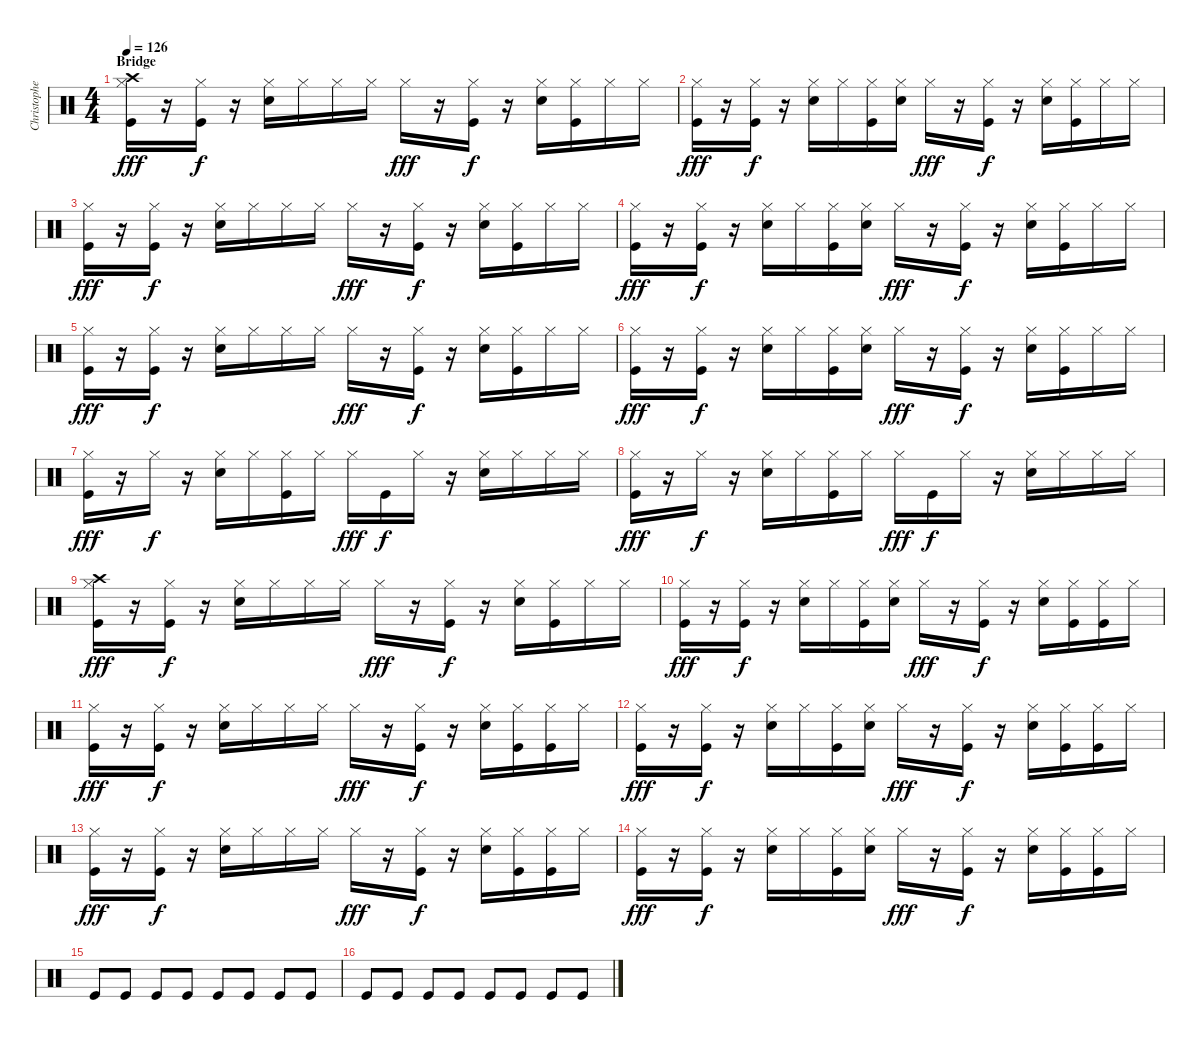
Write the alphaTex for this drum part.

\track ("Christopher - Drums" "Christophe") {mute instrument percussion}
\staff {score}
\articulation defaults
\ts (4 4)
\section ("" "Bridge")
\tempo 126
\clef neutral
\ks c
("Crash high (hit)" "Hi-Hat (closed)" "Kick (hit)").16{dy fff} r.16 ("Hi-Hat (closed)" "Kick (hit)").16{dy f} r.16 ("Hi-Hat (closed)" "Snare (hit) 2").16 "Hi-Hat (closed)".16 "Hi-Hat (closed)".16 "Hi-Hat (closed)".16 "Hi-Hat (closed)".16{dy fff} r.16 ("Hi-Hat (closed)" "Kick (hit)").16{dy f} r.16 ("Hi-Hat (closed)" "Snare (hit) 2").16 ("Hi-Hat (closed)" "Kick (hit)").16 "Hi-Hat (closed)".16 "Hi-Hat (closed)".16 |
("Hi-Hat (closed)" "Kick (hit)").16{dy fff} r.16 ("Hi-Hat (closed)" "Kick (hit)").16{dy f} r.16 ("Hi-Hat (closed)" "Snare (hit) 2").16 "Hi-Hat (closed)".16 ("Hi-Hat (closed)" "Kick (hit)").16 ("Hi-Hat (closed)" "Snare (hit) 2").16 "Hi-Hat (closed)".16{dy fff} r.16 ("Hi-Hat (closed)" "Kick (hit)").16{dy f} r.16 ("Hi-Hat (closed)" "Snare (hit) 2").16 ("Hi-Hat (closed)" "Kick (hit)").16 "Hi-Hat (closed)".16 "Hi-Hat (closed)".16 |
("Hi-Hat (closed)" "Kick (hit)").16{dy fff} r.16 ("Hi-Hat (closed)" "Kick (hit)").16{dy f} r.16 ("Hi-Hat (closed)" "Snare (hit) 2").16 "Hi-Hat (closed)".16 "Hi-Hat (closed)".16 "Hi-Hat (closed)".16 "Hi-Hat (closed)".16{dy fff} r.16 ("Hi-Hat (closed)" "Kick (hit)").16{dy f} r.16 ("Hi-Hat (closed)" "Snare (hit) 2").16 ("Hi-Hat (closed)" "Kick (hit)").16 "Hi-Hat (closed)".16 "Hi-Hat (closed)".16 |
("Hi-Hat (closed)" "Kick (hit)").16{dy fff} r.16 ("Hi-Hat (closed)" "Kick (hit)").16{dy f} r.16 ("Hi-Hat (closed)" "Snare (hit) 2").16 "Hi-Hat (closed)".16 ("Hi-Hat (closed)" "Kick (hit)").16 ("Hi-Hat (closed)" "Snare (hit) 2").16 "Hi-Hat (closed)".16{dy fff} r.16 ("Hi-Hat (closed)" "Kick (hit)").16{dy f} r.16 ("Hi-Hat (closed)" "Snare (hit) 2").16 ("Hi-Hat (closed)" "Kick (hit)").16 "Hi-Hat (closed)".16 "Hi-Hat (closed)".16 |
("Hi-Hat (closed)" "Kick (hit)").16{dy fff} r.16 ("Hi-Hat (closed)" "Kick (hit)").16{dy f} r.16 ("Hi-Hat (closed)" "Snare (hit) 2").16 "Hi-Hat (closed)".16 "Hi-Hat (closed)".16 "Hi-Hat (closed)".16 "Hi-Hat (closed)".16{dy fff} r.16 ("Hi-Hat (closed)" "Kick (hit)").16{dy f} r.16 ("Hi-Hat (closed)" "Snare (hit) 2").16 ("Hi-Hat (closed)" "Kick (hit)").16 "Hi-Hat (closed)".16 "Hi-Hat (closed)".16 |
("Hi-Hat (closed)" "Kick (hit)").16{dy fff} r.16 ("Hi-Hat (closed)" "Kick (hit)").16{dy f} r.16 ("Hi-Hat (closed)" "Snare (hit) 2").16 "Hi-Hat (closed)".16 ("Hi-Hat (closed)" "Kick (hit)").16 ("Hi-Hat (closed)" "Snare (hit) 2").16 "Hi-Hat (closed)".16{dy fff} r.16 ("Hi-Hat (closed)" "Kick (hit)").16{dy f} r.16 ("Hi-Hat (closed)" "Snare (hit) 2").16 ("Hi-Hat (closed)" "Kick (hit)").16 "Hi-Hat (closed)".16 "Hi-Hat (closed)".16 |
("Hi-Hat (closed)" "Kick (hit)").16{dy fff} r.16 "Hi-Hat (closed)".16{dy f} r.16 ("Hi-Hat (closed)" "Snare (hit) 2").16 "Hi-Hat (closed)".16 ("Hi-Hat (closed)" "Kick (hit)").16 "Hi-Hat (closed)".16 "Hi-Hat (closed)".16{dy fff} "Kick (hit)".16{dy f} "Hi-Hat (closed)".16 r.16 ("Hi-Hat (closed)" "Snare (hit) 2").16 "Hi-Hat (closed)".16 "Hi-Hat (closed)".16 "Hi-Hat (closed)".16 |
("Hi-Hat (closed)" "Kick (hit)").16{dy fff} r.16 "Hi-Hat (closed)".16{dy f} r.16 ("Hi-Hat (closed)" "Snare (hit) 2").16 "Hi-Hat (closed)".16 ("Hi-Hat (closed)" "Kick (hit)").16 "Hi-Hat (closed)".16 "Hi-Hat (closed)".16{dy fff} "Kick (hit)".16{dy f} "Hi-Hat (closed)".16 r.16 ("Hi-Hat (closed)" "Snare (hit) 2").16 "Hi-Hat (closed)".16 "Hi-Hat (closed)".16 "Hi-Hat (closed)".16 |
("Crash high (hit)" "Hi-Hat (closed)" "Kick (hit)").16{dy fff} r.16 ("Hi-Hat (closed)" "Kick (hit)").16{dy f} r.16 ("Hi-Hat (closed)" "Snare (hit) 2").16 "Hi-Hat (closed)".16 "Hi-Hat (closed)".16 "Hi-Hat (closed)".16 "Hi-Hat (closed)".16{dy fff} r.16 ("Hi-Hat (closed)" "Kick (hit)").16{dy f} r.16 ("Hi-Hat (closed)" "Snare (hit) 2").16 ("Hi-Hat (closed)" "Kick (hit)").16 "Hi-Hat (closed)".16 "Hi-Hat (closed)".16 |
("Hi-Hat (closed)" "Kick (hit)").16{dy fff} r.16 ("Hi-Hat (closed)" "Kick (hit)").16{dy f} r.16 ("Hi-Hat (closed)" "Snare (hit) 2").16 "Hi-Hat (closed)".16 ("Hi-Hat (closed)" "Kick (hit)").16 ("Hi-Hat (closed)" "Snare (hit) 2").16 "Hi-Hat (closed)".16{dy fff} r.16 ("Hi-Hat (closed)" "Kick (hit)").16{dy f} r.16 ("Hi-Hat (closed)" "Snare (hit) 2").16 ("Hi-Hat (closed)" "Kick (hit)").16 ("Hi-Hat (closed)" "Kick (hit)").16 "Hi-Hat (closed)".16 |
("Hi-Hat (closed)" "Kick (hit)").16{dy fff} r.16 ("Hi-Hat (closed)" "Kick (hit)").16{dy f} r.16 ("Hi-Hat (closed)" "Snare (hit) 2").16 "Hi-Hat (closed)".16 "Hi-Hat (closed)".16 "Hi-Hat (closed)".16 "Hi-Hat (closed)".16{dy fff} r.16 ("Hi-Hat (closed)" "Kick (hit)").16{dy f} r.16 ("Hi-Hat (closed)" "Snare (hit) 2").16 ("Hi-Hat (closed)" "Kick (hit)").16 ("Hi-Hat (closed)" "Kick (hit)").16 "Hi-Hat (closed)".16 |
("Hi-Hat (closed)" "Kick (hit)").16{dy fff} r.16 ("Hi-Hat (closed)" "Kick (hit)").16{dy f} r.16 ("Hi-Hat (closed)" "Snare (hit) 2").16 "Hi-Hat (closed)".16 ("Hi-Hat (closed)" "Kick (hit)").16 ("Hi-Hat (closed)" "Snare (hit) 2").16 "Hi-Hat (closed)".16{dy fff} r.16 ("Hi-Hat (closed)" "Kick (hit)").16{dy f} r.16 ("Hi-Hat (closed)" "Snare (hit) 2").16 ("Hi-Hat (closed)" "Kick (hit)").16 ("Hi-Hat (closed)" "Kick (hit)").16 "Hi-Hat (closed)".16 |
("Hi-Hat (closed)" "Kick (hit)").16{dy fff} r.16 ("Hi-Hat (closed)" "Kick (hit)").16{dy f} r.16 ("Hi-Hat (closed)" "Snare (hit) 2").16 "Hi-Hat (closed)".16 "Hi-Hat (closed)".16 "Hi-Hat (closed)".16 "Hi-Hat (closed)".16{dy fff} r.16 ("Hi-Hat (closed)" "Kick (hit)").16{dy f} r.16 ("Hi-Hat (closed)" "Snare (hit) 2").16 ("Hi-Hat (closed)" "Kick (hit)").16 ("Hi-Hat (closed)" "Kick (hit)").16 "Hi-Hat (closed)".16 |
("Hi-Hat (closed)" "Kick (hit)").16{dy fff} r.16 ("Hi-Hat (closed)" "Kick (hit)").16{dy f} r.16 ("Hi-Hat (closed)" "Snare (hit) 2").16 "Hi-Hat (closed)".16 ("Hi-Hat (closed)" "Kick (hit)").16 ("Hi-Hat (closed)" "Snare (hit) 2").16 "Hi-Hat (closed)".16{dy fff} r.16 ("Hi-Hat (closed)" "Kick (hit)").16{dy f} r.16 ("Hi-Hat (closed)" "Snare (hit) 2").16 ("Hi-Hat (closed)" "Kick (hit)").16 ("Hi-Hat (closed)" "Kick (hit)").16 "Hi-Hat (closed)".16 |
"Kick (hit)".8 "Kick (hit)".8 "Kick (hit)".8 "Kick (hit)".8 "Kick (hit)".8 "Kick (hit)".8 "Kick (hit)".8 "Kick (hit)".8 |
"Kick (hit)".8 "Kick (hit)".8 "Kick (hit)".8 "Kick (hit)".8 "Kick (hit)".8 "Kick (hit)".8 "Kick (hit)".8 "Kick (hit)".8
